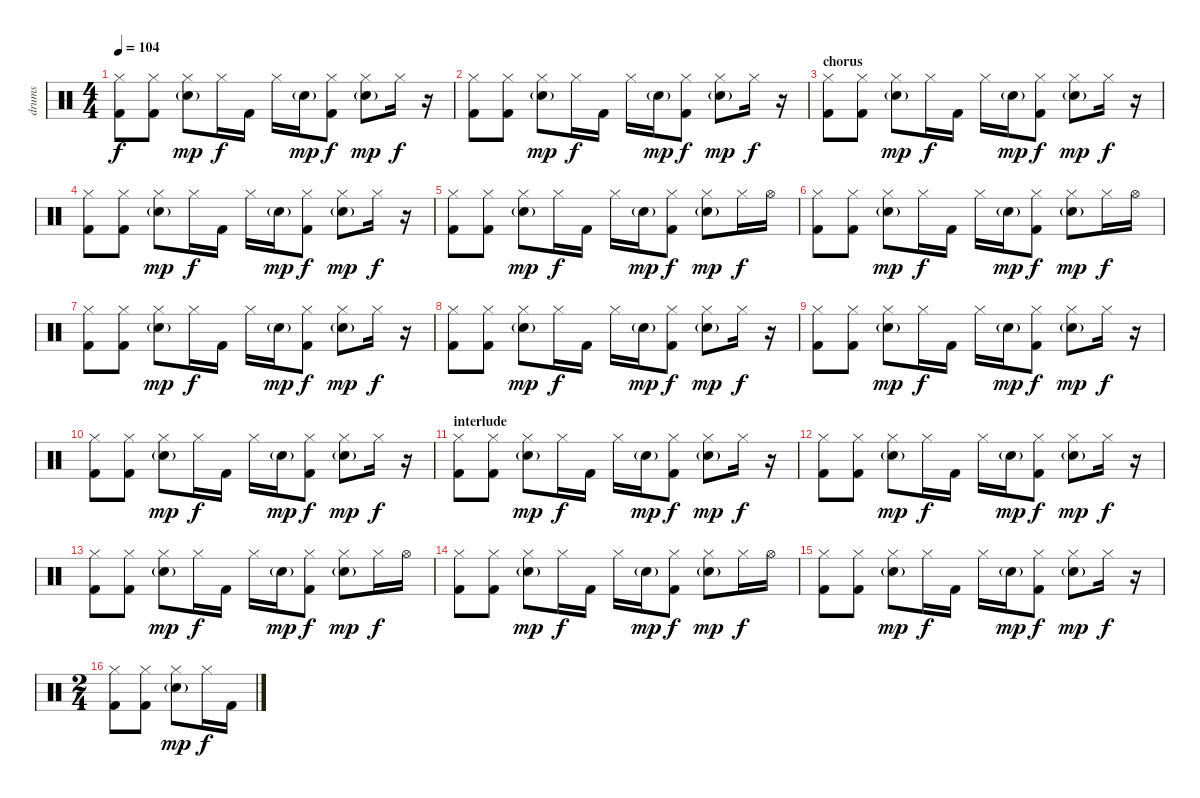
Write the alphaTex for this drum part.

\track ("drums" "drums") {instrument percussion}
\staff {score}
\articulation defaults
\ts (4 4)
\tempo 104
\clef neutral
\ks c
("Hi-Hat (closed)" "Kick (hit) 2").8{dy f} ("Hi-Hat (closed)" "Kick (hit) 2").8 ("Hi-Hat (closed)" "Electric Snare (hit)"{g}).8{dy mp} "Hi-Hat (closed)".16{dy f} "Kick (hit) 2".16 "Hi-Hat (closed)".16 "Electric Snare (hit)"{g}.16{dy mp} ("Hi-Hat (closed)" "Kick (hit) 2").8{dy f} ("Hi-Hat (closed)" "Electric Snare (hit)"{g}).8{dy mp} "Hi-Hat (closed)".16{dy f} r.16 |
("Hi-Hat (closed)" "Kick (hit) 2").8 ("Hi-Hat (closed)" "Kick (hit) 2").8 ("Hi-Hat (closed)" "Electric Snare (hit)"{g}).8{dy mp} "Hi-Hat (closed)".16{dy f} "Kick (hit) 2".16 "Hi-Hat (closed)".16 "Electric Snare (hit)"{g}.16{dy mp} ("Hi-Hat (closed)" "Kick (hit) 2").8{dy f} ("Hi-Hat (closed)" "Electric Snare (hit)"{g}).8{dy mp} "Hi-Hat (closed)".16{dy f} r.16 |
\section ("" "chorus")
("Hi-Hat (closed)" "Kick (hit) 2").8 ("Hi-Hat (closed)" "Kick (hit) 2").8 ("Hi-Hat (closed)" "Electric Snare (hit)"{g}).8{dy mp} "Hi-Hat (closed)".16{dy f} "Kick (hit) 2".16 "Hi-Hat (closed)".16 "Electric Snare (hit)"{g}.16{dy mp} ("Hi-Hat (closed)" "Kick (hit) 2").8{dy f} ("Hi-Hat (closed)" "Electric Snare (hit)"{g}).8{dy mp} "Hi-Hat (closed)".16{dy f} r.16 |
("Hi-Hat (closed)" "Kick (hit) 2").8 ("Hi-Hat (closed)" "Kick (hit) 2").8 ("Hi-Hat (closed)" "Electric Snare (hit)"{g}).8{dy mp} "Hi-Hat (closed)".16{dy f} "Kick (hit) 2".16 "Hi-Hat (closed)".16 "Electric Snare (hit)"{g}.16{dy mp} ("Hi-Hat (closed)" "Kick (hit) 2").8{dy f} ("Hi-Hat (closed)" "Electric Snare (hit)"{g}).8{dy mp} "Hi-Hat (closed)".16{dy f} r.16 |
("Hi-Hat (closed)" "Kick (hit) 2").8 ("Hi-Hat (closed)" "Kick (hit) 2").8 ("Hi-Hat (closed)" "Electric Snare (hit)"{g}).8{dy mp} "Hi-Hat (closed)".16{dy f} "Kick (hit) 2".16 "Hi-Hat (closed)".16 "Electric Snare (hit)"{g}.16{dy mp} ("Hi-Hat (closed)" "Kick (hit) 2").8{dy f} ("Hi-Hat (closed)" "Electric Snare (hit)"{g}).8{dy mp} "Hi-Hat (closed)".16{dy f} "Hi-Hat (open)".16 |
("Hi-Hat (closed)" "Kick (hit) 2").8 ("Hi-Hat (closed)" "Kick (hit) 2").8 ("Hi-Hat (closed)" "Electric Snare (hit)"{g}).8{dy mp} "Hi-Hat (closed)".16{dy f} "Kick (hit) 2".16 "Hi-Hat (closed)".16 "Electric Snare (hit)"{g}.16{dy mp} ("Hi-Hat (closed)" "Kick (hit) 2").8{dy f} ("Hi-Hat (closed)" "Electric Snare (hit)"{g}).8{dy mp} "Hi-Hat (closed)".16{dy f} "Hi-Hat (open)".16 |
("Hi-Hat (closed)" "Kick (hit) 2").8 ("Hi-Hat (closed)" "Kick (hit) 2").8 ("Hi-Hat (closed)" "Electric Snare (hit)"{g}).8{dy mp} "Hi-Hat (closed)".16{dy f} "Kick (hit) 2".16 "Hi-Hat (closed)".16 "Electric Snare (hit)"{g}.16{dy mp} ("Hi-Hat (closed)" "Kick (hit) 2").8{dy f} ("Hi-Hat (closed)" "Electric Snare (hit)"{g}).8{dy mp} "Hi-Hat (closed)".16{dy f} r.16 |
("Hi-Hat (closed)" "Kick (hit) 2").8 ("Hi-Hat (closed)" "Kick (hit) 2").8 ("Hi-Hat (closed)" "Electric Snare (hit)"{g}).8{dy mp} "Hi-Hat (closed)".16{dy f} "Kick (hit) 2".16 "Hi-Hat (closed)".16 "Electric Snare (hit)"{g}.16{dy mp} ("Hi-Hat (closed)" "Kick (hit) 2").8{dy f} ("Hi-Hat (closed)" "Electric Snare (hit)"{g}).8{dy mp} "Hi-Hat (closed)".16{dy f} r.16 |
("Hi-Hat (closed)" "Kick (hit) 2").8 ("Hi-Hat (closed)" "Kick (hit) 2").8 ("Hi-Hat (closed)" "Electric Snare (hit)"{g}).8{dy mp} "Hi-Hat (closed)".16{dy f} "Kick (hit) 2".16 "Hi-Hat (closed)".16 "Electric Snare (hit)"{g}.16{dy mp} ("Hi-Hat (closed)" "Kick (hit) 2").8{dy f} ("Hi-Hat (closed)" "Electric Snare (hit)"{g}).8{dy mp} "Hi-Hat (closed)".16{dy f} r.16 |
("Hi-Hat (closed)" "Kick (hit) 2").8 ("Hi-Hat (closed)" "Kick (hit) 2").8 ("Hi-Hat (closed)" "Electric Snare (hit)"{g}).8{dy mp} "Hi-Hat (closed)".16{dy f} "Kick (hit) 2".16 "Hi-Hat (closed)".16 "Electric Snare (hit)"{g}.16{dy mp} ("Hi-Hat (closed)" "Kick (hit) 2").8{dy f} ("Hi-Hat (closed)" "Electric Snare (hit)"{g}).8{dy mp} "Hi-Hat (closed)".16{dy f} r.16 |
\section ("" "interlude")
("Hi-Hat (closed)" "Kick (hit) 2").8 ("Hi-Hat (closed)" "Kick (hit) 2").8 ("Hi-Hat (closed)" "Electric Snare (hit)"{g}).8{dy mp} "Hi-Hat (closed)".16{dy f} "Kick (hit) 2".16 "Hi-Hat (closed)".16 "Electric Snare (hit)"{g}.16{dy mp} ("Hi-Hat (closed)" "Kick (hit) 2").8{dy f} ("Hi-Hat (closed)" "Electric Snare (hit)"{g}).8{dy mp} "Hi-Hat (closed)".16{dy f} r.16 |
("Hi-Hat (closed)" "Kick (hit) 2").8 ("Hi-Hat (closed)" "Kick (hit) 2").8 ("Hi-Hat (closed)" "Electric Snare (hit)"{g}).8{dy mp} "Hi-Hat (closed)".16{dy f} "Kick (hit) 2".16 "Hi-Hat (closed)".16 "Electric Snare (hit)"{g}.16{dy mp} ("Hi-Hat (closed)" "Kick (hit) 2").8{dy f} ("Hi-Hat (closed)" "Electric Snare (hit)"{g}).8{dy mp} "Hi-Hat (closed)".16{dy f} r.16 |
("Hi-Hat (closed)" "Kick (hit) 2").8 ("Hi-Hat (closed)" "Kick (hit) 2").8 ("Hi-Hat (closed)" "Electric Snare (hit)"{g}).8{dy mp} "Hi-Hat (closed)".16{dy f} "Kick (hit) 2".16 "Hi-Hat (closed)".16 "Electric Snare (hit)"{g}.16{dy mp} ("Hi-Hat (closed)" "Kick (hit) 2").8{dy f} ("Hi-Hat (closed)" "Electric Snare (hit)"{g}).8{dy mp} "Hi-Hat (closed)".16{dy f} "Hi-Hat (open)".16 |
("Hi-Hat (closed)" "Kick (hit) 2").8 ("Hi-Hat (closed)" "Kick (hit) 2").8 ("Hi-Hat (closed)" "Electric Snare (hit)"{g}).8{dy mp} "Hi-Hat (closed)".16{dy f} "Kick (hit) 2".16 "Hi-Hat (closed)".16 "Electric Snare (hit)"{g}.16{dy mp} ("Hi-Hat (closed)" "Kick (hit) 2").8{dy f} ("Hi-Hat (closed)" "Electric Snare (hit)"{g}).8{dy mp} "Hi-Hat (closed)".16{dy f} "Hi-Hat (open)".16 |
("Hi-Hat (closed)" "Kick (hit) 2").8 ("Hi-Hat (closed)" "Kick (hit) 2").8 ("Hi-Hat (closed)" "Electric Snare (hit)"{g}).8{dy mp} "Hi-Hat (closed)".16{dy f} "Kick (hit) 2".16 "Hi-Hat (closed)".16 "Electric Snare (hit)"{g}.16{dy mp} ("Hi-Hat (closed)" "Kick (hit) 2").8{dy f} ("Hi-Hat (closed)" "Electric Snare (hit)"{g}).8{dy mp} "Hi-Hat (closed)".16{dy f} r.16 |
\ts (2 4)
("Hi-Hat (closed)" "Kick (hit) 2").8 ("Hi-Hat (closed)" "Kick (hit) 2").8 ("Hi-Hat (closed)" "Electric Snare (hit)"{g}).8{dy mp} "Hi-Hat (closed)".16{dy f} "Kick (hit) 2".16
